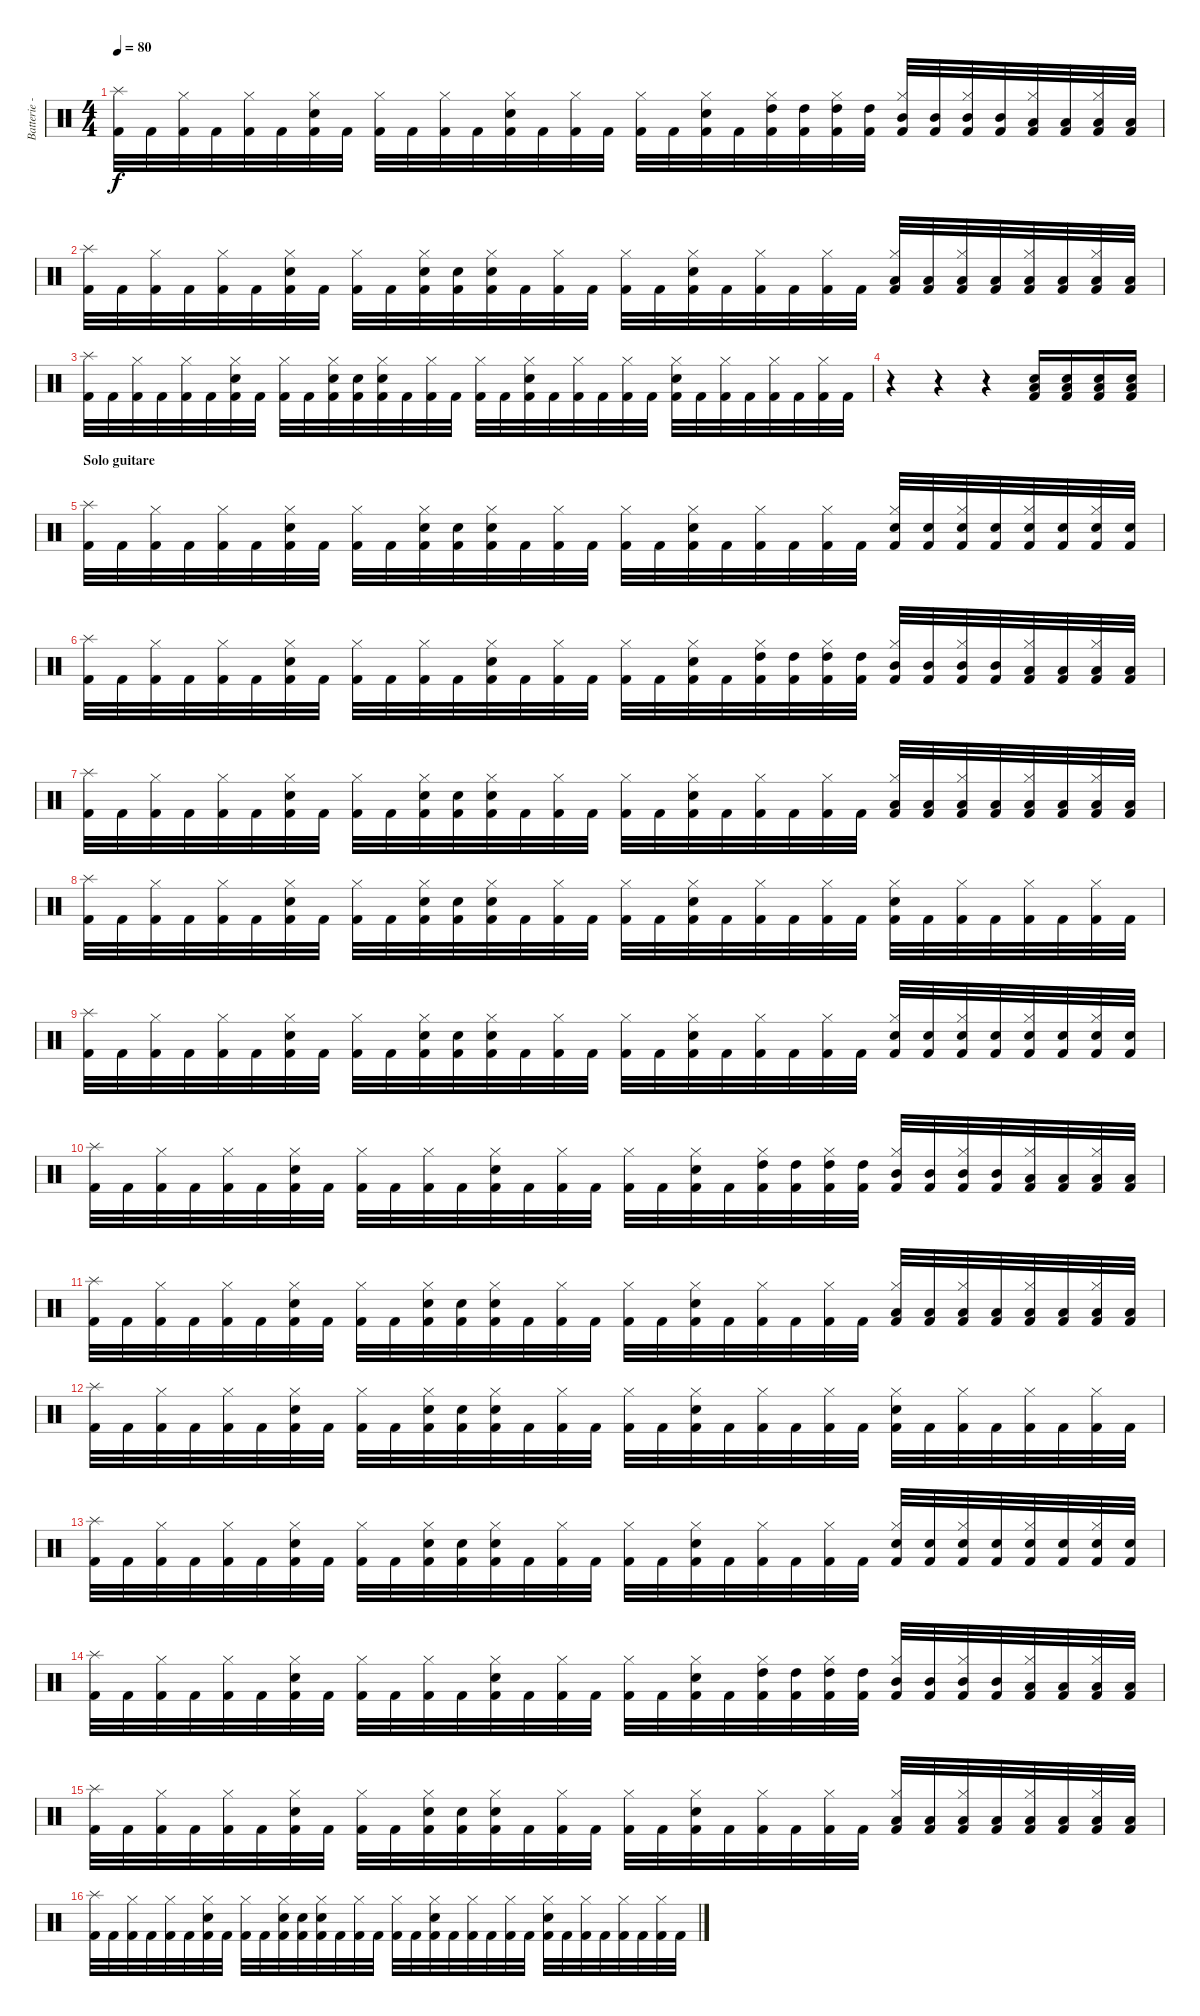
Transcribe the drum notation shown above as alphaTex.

\track ("Batterie - François" "Batterie -") {instrument percussion}
\staff {score}
\articulation defaults
\ts (4 4)
\tempo 80
\clef neutral
\ks c
("Splash (hit)" "Kick (hit) 2").32{dy f} "Kick (hit) 2".32 ("Hi-Hat (closed)" "Kick (hit) 2").32 "Kick (hit) 2".32 ("Hi-Hat (closed)" "Kick (hit) 2").32 "Kick (hit) 2".32 ("Hi-Hat (closed)" "Electric Snare (hit)" "Kick (hit) 2").32 "Kick (hit) 2".32 ("Hi-Hat (closed)" "Kick (hit) 2").32 "Kick (hit) 2".32 ("Hi-Hat (closed)" "Kick (hit) 2").32 "Kick (hit) 2".32 ("Hi-Hat (closed)" "Electric Snare (hit)" "Kick (hit) 2").32 "Kick (hit) 2".32 ("Hi-Hat (closed)" "Kick (hit) 2").32 "Kick (hit) 2".32 ("Hi-Hat (closed)" "Kick (hit) 2").32 "Kick (hit) 2".32 ("Hi-Hat (closed)" "Electric Snare (hit)" "Kick (hit) 2").32 "Kick (hit) 2".32 ("Hi-Hat (closed)" "High Tom (hit)" "Kick (hit) 2").32 ("High Tom (hit)" "Kick (hit) 2").32 ("Hi-Hat (closed)" "High Tom (hit)" "Kick (hit) 2").32 ("High Tom (hit)" "Kick (hit) 2").32 ("Hi-Hat (closed)" "Mid Tom (hit)" "Kick (hit) 2").32 ("Mid Tom (hit)" "Kick (hit) 2").32 ("Hi-Hat (closed)" "Mid Tom (hit)" "Kick (hit) 2").32 ("Mid Tom (hit)" "Kick (hit) 2").32 ("Hi-Hat (closed)" "Low Tom (hit)" "Kick (hit) 2").32 ("Low Tom (hit)" "Kick (hit) 2").32 ("Hi-Hat (closed)" "Low Tom (hit)" "Kick (hit) 2").32 ("Low Tom (hit)" "Kick (hit) 2").32 |
("Splash (hit)" "Kick (hit) 2").32 "Kick (hit) 2".32 ("Hi-Hat (closed)" "Kick (hit) 2").32 "Kick (hit) 2".32 ("Hi-Hat (closed)" "Kick (hit) 2").32 "Kick (hit) 2".32 ("Hi-Hat (closed)" "Electric Snare (hit)" "Kick (hit) 2").32 "Kick (hit) 2".32 ("Hi-Hat (closed)" "Kick (hit) 2").32 "Kick (hit) 2".32 ("Hi-Hat (closed)" "Electric Snare (hit)" "Kick (hit) 2").32 ("Electric Snare (hit)" "Kick (hit) 2").32 ("Hi-Hat (closed)" "Electric Snare (hit)" "Kick (hit) 2").32 "Kick (hit) 2".32 ("Hi-Hat (closed)" "Kick (hit) 2").32 "Kick (hit) 2".32 ("Hi-Hat (closed)" "Kick (hit) 2").32 "Kick (hit) 2".32 ("Hi-Hat (closed)" "Electric Snare (hit)" "Kick (hit) 2").32 "Kick (hit) 2".32 ("Hi-Hat (closed)" "Kick (hit) 2").32 "Kick (hit) 2".32 ("Hi-Hat (closed)" "Kick (hit) 2").32 "Kick (hit) 2".32 ("Hi-Hat (closed)" "Low Tom (hit)" "Kick (hit) 2").32 ("Low Tom (hit)" "Kick (hit) 2").32 ("Hi-Hat (closed)" "Low Tom (hit)" "Kick (hit) 2").32 ("Low Tom (hit)" "Kick (hit) 2").32 ("Hi-Hat (closed)" "Low Tom (hit)" "Kick (hit) 2").32 ("Low Tom (hit)" "Kick (hit) 2").32 ("Hi-Hat (closed)" "Low Tom (hit)" "Kick (hit) 2").32 ("Low Tom (hit)" "Kick (hit) 2").32 |
("Splash (hit)" "Kick (hit) 2").32 "Kick (hit) 2".32 ("Hi-Hat (closed)" "Kick (hit) 2").32 "Kick (hit) 2".32 ("Hi-Hat (closed)" "Kick (hit) 2").32 "Kick (hit) 2".32 ("Hi-Hat (closed)" "Electric Snare (hit)" "Kick (hit) 2").32 "Kick (hit) 2".32 ("Hi-Hat (closed)" "Kick (hit) 2").32 "Kick (hit) 2".32 ("Hi-Hat (closed)" "Electric Snare (hit)" "Kick (hit) 2").32 ("Electric Snare (hit)" "Kick (hit) 2").32 ("Hi-Hat (closed)" "Electric Snare (hit)" "Kick (hit) 2").32 "Kick (hit) 2".32 ("Hi-Hat (closed)" "Kick (hit) 2").32 "Kick (hit) 2".32 ("Hi-Hat (closed)" "Kick (hit) 2").32 "Kick (hit) 2".32 ("Hi-Hat (closed)" "Electric Snare (hit)" "Kick (hit) 2").32 "Kick (hit) 2".32 ("Hi-Hat (closed)" "Kick (hit) 2").32 "Kick (hit) 2".32 ("Hi-Hat (closed)" "Kick (hit) 2").32 "Kick (hit) 2".32 ("Hi-Hat (closed)" "Electric Snare (hit)" "Kick (hit) 2").32 "Kick (hit) 2".32 ("Hi-Hat (closed)" "Kick (hit) 2").32 "Kick (hit) 2".32 ("Hi-Hat (closed)" "Kick (hit) 2").32 "Kick (hit) 2".32 ("Hi-Hat (closed)" "Kick (hit) 2").32 "Kick (hit) 2".32 |
r.4 r.4 r.4 ("Electric Snare (hit)" "Low Tom (hit)" "Kick (hit) 2").16 ("Electric Snare (hit)" "Low Tom (hit)" "Kick (hit) 2").16 ("Electric Snare (hit)" "Low Tom (hit)" "Kick (hit) 2").16 ("Electric Snare (hit)" "Low Tom (hit)" "Kick (hit) 2").16 |
\section ("" "Solo guitare")
("Splash (hit)" "Kick (hit) 2").32 "Kick (hit) 2".32 ("Hi-Hat (closed)" "Kick (hit) 2").32 "Kick (hit) 2".32 ("Hi-Hat (closed)" "Kick (hit) 2").32 "Kick (hit) 2".32 ("Hi-Hat (closed)" "Electric Snare (hit)" "Kick (hit) 2").32 "Kick (hit) 2".32 ("Hi-Hat (closed)" "Kick (hit) 2").32 "Kick (hit) 2".32 ("Hi-Hat (closed)" "Electric Snare (hit)" "Kick (hit) 2").32 ("Electric Snare (hit)" "Kick (hit) 2").32 ("Hi-Hat (closed)" "Electric Snare (hit)" "Kick (hit) 2").32 "Kick (hit) 2".32 ("Hi-Hat (closed)" "Kick (hit) 2").32 "Kick (hit) 2".32 ("Hi-Hat (closed)" "Kick (hit) 2").32 "Kick (hit) 2".32 ("Hi-Hat (closed)" "Electric Snare (hit)" "Kick (hit) 2").32 "Kick (hit) 2".32 ("Hi-Hat (closed)" "Kick (hit) 2").32 "Kick (hit) 2".32 ("Hi-Hat (closed)" "Kick (hit) 2").32 "Kick (hit) 2".32 ("Hi-Hat (closed)" "Electric Snare (hit)" "Kick (hit) 2").32 ("Electric Snare (hit)" "Kick (hit) 2").32 ("Hi-Hat (closed)" "Electric Snare (hit)" "Kick (hit) 2").32 ("Electric Snare (hit)" "Kick (hit) 2").32 ("Hi-Hat (closed)" "Electric Snare (hit)" "Kick (hit) 2").32 ("Electric Snare (hit)" "Kick (hit) 2").32 ("Hi-Hat (closed)" "Electric Snare (hit)" "Kick (hit) 2").32 ("Electric Snare (hit)" "Kick (hit) 2").32 |
("Splash (hit)" "Kick (hit) 2").32 "Kick (hit) 2".32 ("Hi-Hat (closed)" "Kick (hit) 2").32 "Kick (hit) 2".32 ("Hi-Hat (closed)" "Kick (hit) 2").32 "Kick (hit) 2".32 ("Hi-Hat (closed)" "Electric Snare (hit)" "Kick (hit) 2").32 "Kick (hit) 2".32 ("Hi-Hat (closed)" "Kick (hit) 2").32 "Kick (hit) 2".32 ("Hi-Hat (closed)" "Kick (hit) 2").32 "Kick (hit) 2".32 ("Hi-Hat (closed)" "Electric Snare (hit)" "Kick (hit) 2").32 "Kick (hit) 2".32 ("Hi-Hat (closed)" "Kick (hit) 2").32 "Kick (hit) 2".32 ("Hi-Hat (closed)" "Kick (hit) 2").32 "Kick (hit) 2".32 ("Hi-Hat (closed)" "Electric Snare (hit)" "Kick (hit) 2").32 "Kick (hit) 2".32 ("Hi-Hat (closed)" "High Tom (hit)" "Kick (hit) 2").32 ("High Tom (hit)" "Kick (hit) 2").32 ("Hi-Hat (closed)" "High Tom (hit)" "Kick (hit) 2").32 ("High Tom (hit)" "Kick (hit) 2").32 ("Hi-Hat (closed)" "Mid Tom (hit)" "Kick (hit) 2").32 ("Mid Tom (hit)" "Kick (hit) 2").32 ("Hi-Hat (closed)" "Mid Tom (hit)" "Kick (hit) 2").32 ("Mid Tom (hit)" "Kick (hit) 2").32 ("Hi-Hat (closed)" "Low Tom (hit)" "Kick (hit) 2").32 ("Low Tom (hit)" "Kick (hit) 2").32 ("Hi-Hat (closed)" "Low Tom (hit)" "Kick (hit) 2").32 ("Low Tom (hit)" "Kick (hit) 2").32 |
("Splash (hit)" "Kick (hit) 2").32 "Kick (hit) 2".32 ("Hi-Hat (closed)" "Kick (hit) 2").32 "Kick (hit) 2".32 ("Hi-Hat (closed)" "Kick (hit) 2").32 "Kick (hit) 2".32 ("Hi-Hat (closed)" "Electric Snare (hit)" "Kick (hit) 2").32 "Kick (hit) 2".32 ("Hi-Hat (closed)" "Kick (hit) 2").32 "Kick (hit) 2".32 ("Hi-Hat (closed)" "Electric Snare (hit)" "Kick (hit) 2").32 ("Electric Snare (hit)" "Kick (hit) 2").32 ("Hi-Hat (closed)" "Electric Snare (hit)" "Kick (hit) 2").32 "Kick (hit) 2".32 ("Hi-Hat (closed)" "Kick (hit) 2").32 "Kick (hit) 2".32 ("Hi-Hat (closed)" "Kick (hit) 2").32 "Kick (hit) 2".32 ("Hi-Hat (closed)" "Electric Snare (hit)" "Kick (hit) 2").32 "Kick (hit) 2".32 ("Hi-Hat (closed)" "Kick (hit) 2").32 "Kick (hit) 2".32 ("Hi-Hat (closed)" "Kick (hit) 2").32 "Kick (hit) 2".32 ("Hi-Hat (closed)" "Low Tom (hit)" "Kick (hit) 2").32 ("Low Tom (hit)" "Kick (hit) 2").32 ("Hi-Hat (closed)" "Low Tom (hit)" "Kick (hit) 2").32 ("Low Tom (hit)" "Kick (hit) 2").32 ("Hi-Hat (closed)" "Low Tom (hit)" "Kick (hit) 2").32 ("Low Tom (hit)" "Kick (hit) 2").32 ("Hi-Hat (closed)" "Low Tom (hit)" "Kick (hit) 2").32 ("Low Tom (hit)" "Kick (hit) 2").32 |
("Splash (hit)" "Kick (hit) 2").32 "Kick (hit) 2".32 ("Hi-Hat (closed)" "Kick (hit) 2").32 "Kick (hit) 2".32 ("Hi-Hat (closed)" "Kick (hit) 2").32 "Kick (hit) 2".32 ("Hi-Hat (closed)" "Electric Snare (hit)" "Kick (hit) 2").32 "Kick (hit) 2".32 ("Hi-Hat (closed)" "Kick (hit) 2").32 "Kick (hit) 2".32 ("Hi-Hat (closed)" "Electric Snare (hit)" "Kick (hit) 2").32 ("Electric Snare (hit)" "Kick (hit) 2").32 ("Hi-Hat (closed)" "Electric Snare (hit)" "Kick (hit) 2").32 "Kick (hit) 2".32 ("Hi-Hat (closed)" "Kick (hit) 2").32 "Kick (hit) 2".32 ("Hi-Hat (closed)" "Kick (hit) 2").32 "Kick (hit) 2".32 ("Hi-Hat (closed)" "Electric Snare (hit)" "Kick (hit) 2").32 "Kick (hit) 2".32 ("Hi-Hat (closed)" "Kick (hit) 2").32 "Kick (hit) 2".32 ("Hi-Hat (closed)" "Kick (hit) 2").32 "Kick (hit) 2".32 ("Hi-Hat (closed)" "Electric Snare (hit)" "Kick (hit) 2").32 "Kick (hit) 2".32 ("Hi-Hat (closed)" "Kick (hit) 2").32 "Kick (hit) 2".32 ("Hi-Hat (closed)" "Kick (hit) 2").32 "Kick (hit) 2".32 ("Hi-Hat (closed)" "Kick (hit) 2").32 "Kick (hit) 2".32 |
("Splash (hit)" "Kick (hit) 2").32 "Kick (hit) 2".32 ("Hi-Hat (closed)" "Kick (hit) 2").32 "Kick (hit) 2".32 ("Hi-Hat (closed)" "Kick (hit) 2").32 "Kick (hit) 2".32 ("Hi-Hat (closed)" "Electric Snare (hit)" "Kick (hit) 2").32 "Kick (hit) 2".32 ("Hi-Hat (closed)" "Kick (hit) 2").32 "Kick (hit) 2".32 ("Hi-Hat (closed)" "Electric Snare (hit)" "Kick (hit) 2").32 ("Electric Snare (hit)" "Kick (hit) 2").32 ("Hi-Hat (closed)" "Electric Snare (hit)" "Kick (hit) 2").32 "Kick (hit) 2".32 ("Hi-Hat (closed)" "Kick (hit) 2").32 "Kick (hit) 2".32 ("Hi-Hat (closed)" "Kick (hit) 2").32 "Kick (hit) 2".32 ("Hi-Hat (closed)" "Electric Snare (hit)" "Kick (hit) 2").32 "Kick (hit) 2".32 ("Hi-Hat (closed)" "Kick (hit) 2").32 "Kick (hit) 2".32 ("Hi-Hat (closed)" "Kick (hit) 2").32 "Kick (hit) 2".32 ("Hi-Hat (closed)" "Electric Snare (hit)" "Kick (hit) 2").32 ("Electric Snare (hit)" "Kick (hit) 2").32 ("Hi-Hat (closed)" "Electric Snare (hit)" "Kick (hit) 2").32 ("Electric Snare (hit)" "Kick (hit) 2").32 ("Hi-Hat (closed)" "Electric Snare (hit)" "Kick (hit) 2").32 ("Electric Snare (hit)" "Kick (hit) 2").32 ("Hi-Hat (closed)" "Electric Snare (hit)" "Kick (hit) 2").32 ("Electric Snare (hit)" "Kick (hit) 2").32 |
("Splash (hit)" "Kick (hit) 2").32 "Kick (hit) 2".32 ("Hi-Hat (closed)" "Kick (hit) 2").32 "Kick (hit) 2".32 ("Hi-Hat (closed)" "Kick (hit) 2").32 "Kick (hit) 2".32 ("Hi-Hat (closed)" "Electric Snare (hit)" "Kick (hit) 2").32 "Kick (hit) 2".32 ("Hi-Hat (closed)" "Kick (hit) 2").32 "Kick (hit) 2".32 ("Hi-Hat (closed)" "Kick (hit) 2").32 "Kick (hit) 2".32 ("Hi-Hat (closed)" "Electric Snare (hit)" "Kick (hit) 2").32 "Kick (hit) 2".32 ("Hi-Hat (closed)" "Kick (hit) 2").32 "Kick (hit) 2".32 ("Hi-Hat (closed)" "Kick (hit) 2").32 "Kick (hit) 2".32 ("Hi-Hat (closed)" "Electric Snare (hit)" "Kick (hit) 2").32 "Kick (hit) 2".32 ("Hi-Hat (closed)" "High Tom (hit)" "Kick (hit) 2").32 ("High Tom (hit)" "Kick (hit) 2").32 ("Hi-Hat (closed)" "High Tom (hit)" "Kick (hit) 2").32 ("High Tom (hit)" "Kick (hit) 2").32 ("Hi-Hat (closed)" "Mid Tom (hit)" "Kick (hit) 2").32 ("Mid Tom (hit)" "Kick (hit) 2").32 ("Hi-Hat (closed)" "Mid Tom (hit)" "Kick (hit) 2").32 ("Mid Tom (hit)" "Kick (hit) 2").32 ("Hi-Hat (closed)" "Low Tom (hit)" "Kick (hit) 2").32 ("Low Tom (hit)" "Kick (hit) 2").32 ("Hi-Hat (closed)" "Low Tom (hit)" "Kick (hit) 2").32 ("Low Tom (hit)" "Kick (hit) 2").32 |
("Splash (hit)" "Kick (hit) 2").32 "Kick (hit) 2".32 ("Hi-Hat (closed)" "Kick (hit) 2").32 "Kick (hit) 2".32 ("Hi-Hat (closed)" "Kick (hit) 2").32 "Kick (hit) 2".32 ("Hi-Hat (closed)" "Electric Snare (hit)" "Kick (hit) 2").32 "Kick (hit) 2".32 ("Hi-Hat (closed)" "Kick (hit) 2").32 "Kick (hit) 2".32 ("Hi-Hat (closed)" "Electric Snare (hit)" "Kick (hit) 2").32 ("Electric Snare (hit)" "Kick (hit) 2").32 ("Hi-Hat (closed)" "Electric Snare (hit)" "Kick (hit) 2").32 "Kick (hit) 2".32 ("Hi-Hat (closed)" "Kick (hit) 2").32 "Kick (hit) 2".32 ("Hi-Hat (closed)" "Kick (hit) 2").32 "Kick (hit) 2".32 ("Hi-Hat (closed)" "Electric Snare (hit)" "Kick (hit) 2").32 "Kick (hit) 2".32 ("Hi-Hat (closed)" "Kick (hit) 2").32 "Kick (hit) 2".32 ("Hi-Hat (closed)" "Kick (hit) 2").32 "Kick (hit) 2".32 ("Hi-Hat (closed)" "Low Tom (hit)" "Kick (hit) 2").32 ("Low Tom (hit)" "Kick (hit) 2").32 ("Hi-Hat (closed)" "Low Tom (hit)" "Kick (hit) 2").32 ("Low Tom (hit)" "Kick (hit) 2").32 ("Hi-Hat (closed)" "Low Tom (hit)" "Kick (hit) 2").32 ("Low Tom (hit)" "Kick (hit) 2").32 ("Hi-Hat (closed)" "Low Tom (hit)" "Kick (hit) 2").32 ("Low Tom (hit)" "Kick (hit) 2").32 |
("Splash (hit)" "Kick (hit) 2").32 "Kick (hit) 2".32 ("Hi-Hat (closed)" "Kick (hit) 2").32 "Kick (hit) 2".32 ("Hi-Hat (closed)" "Kick (hit) 2").32 "Kick (hit) 2".32 ("Hi-Hat (closed)" "Electric Snare (hit)" "Kick (hit) 2").32 "Kick (hit) 2".32 ("Hi-Hat (closed)" "Kick (hit) 2").32 "Kick (hit) 2".32 ("Hi-Hat (closed)" "Electric Snare (hit)" "Kick (hit) 2").32 ("Electric Snare (hit)" "Kick (hit) 2").32 ("Hi-Hat (closed)" "Electric Snare (hit)" "Kick (hit) 2").32 "Kick (hit) 2".32 ("Hi-Hat (closed)" "Kick (hit) 2").32 "Kick (hit) 2".32 ("Hi-Hat (closed)" "Kick (hit) 2").32 "Kick (hit) 2".32 ("Hi-Hat (closed)" "Electric Snare (hit)" "Kick (hit) 2").32 "Kick (hit) 2".32 ("Hi-Hat (closed)" "Kick (hit) 2").32 "Kick (hit) 2".32 ("Hi-Hat (closed)" "Kick (hit) 2").32 "Kick (hit) 2".32 ("Hi-Hat (closed)" "Electric Snare (hit)" "Kick (hit) 2").32 "Kick (hit) 2".32 ("Hi-Hat (closed)" "Kick (hit) 2").32 "Kick (hit) 2".32 ("Hi-Hat (closed)" "Kick (hit) 2").32 "Kick (hit) 2".32 ("Hi-Hat (closed)" "Kick (hit) 2").32 "Kick (hit) 2".32 |
("Splash (hit)" "Kick (hit) 2").32 "Kick (hit) 2".32 ("Hi-Hat (closed)" "Kick (hit) 2").32 "Kick (hit) 2".32 ("Hi-Hat (closed)" "Kick (hit) 2").32 "Kick (hit) 2".32 ("Hi-Hat (closed)" "Electric Snare (hit)" "Kick (hit) 2").32 "Kick (hit) 2".32 ("Hi-Hat (closed)" "Kick (hit) 2").32 "Kick (hit) 2".32 ("Hi-Hat (closed)" "Electric Snare (hit)" "Kick (hit) 2").32 ("Electric Snare (hit)" "Kick (hit) 2").32 ("Hi-Hat (closed)" "Electric Snare (hit)" "Kick (hit) 2").32 "Kick (hit) 2".32 ("Hi-Hat (closed)" "Kick (hit) 2").32 "Kick (hit) 2".32 ("Hi-Hat (closed)" "Kick (hit) 2").32 "Kick (hit) 2".32 ("Hi-Hat (closed)" "Electric Snare (hit)" "Kick (hit) 2").32 "Kick (hit) 2".32 ("Hi-Hat (closed)" "Kick (hit) 2").32 "Kick (hit) 2".32 ("Hi-Hat (closed)" "Kick (hit) 2").32 "Kick (hit) 2".32 ("Hi-Hat (closed)" "Electric Snare (hit)" "Kick (hit) 2").32 ("Electric Snare (hit)" "Kick (hit) 2").32 ("Hi-Hat (closed)" "Electric Snare (hit)" "Kick (hit) 2").32 ("Electric Snare (hit)" "Kick (hit) 2").32 ("Hi-Hat (closed)" "Electric Snare (hit)" "Kick (hit) 2").32 ("Electric Snare (hit)" "Kick (hit) 2").32 ("Hi-Hat (closed)" "Electric Snare (hit)" "Kick (hit) 2").32 ("Electric Snare (hit)" "Kick (hit) 2").32 |
("Splash (hit)" "Kick (hit) 2").32 "Kick (hit) 2".32 ("Hi-Hat (closed)" "Kick (hit) 2").32 "Kick (hit) 2".32 ("Hi-Hat (closed)" "Kick (hit) 2").32 "Kick (hit) 2".32 ("Hi-Hat (closed)" "Electric Snare (hit)" "Kick (hit) 2").32 "Kick (hit) 2".32 ("Hi-Hat (closed)" "Kick (hit) 2").32 "Kick (hit) 2".32 ("Hi-Hat (closed)" "Kick (hit) 2").32 "Kick (hit) 2".32 ("Hi-Hat (closed)" "Electric Snare (hit)" "Kick (hit) 2").32 "Kick (hit) 2".32 ("Hi-Hat (closed)" "Kick (hit) 2").32 "Kick (hit) 2".32 ("Hi-Hat (closed)" "Kick (hit) 2").32 "Kick (hit) 2".32 ("Hi-Hat (closed)" "Electric Snare (hit)" "Kick (hit) 2").32 "Kick (hit) 2".32 ("Hi-Hat (closed)" "High Tom (hit)" "Kick (hit) 2").32 ("High Tom (hit)" "Kick (hit) 2").32 ("Hi-Hat (closed)" "High Tom (hit)" "Kick (hit) 2").32 ("High Tom (hit)" "Kick (hit) 2").32 ("Hi-Hat (closed)" "Mid Tom (hit)" "Kick (hit) 2").32 ("Mid Tom (hit)" "Kick (hit) 2").32 ("Hi-Hat (closed)" "Mid Tom (hit)" "Kick (hit) 2").32 ("Mid Tom (hit)" "Kick (hit) 2").32 ("Hi-Hat (closed)" "Low Tom (hit)" "Kick (hit) 2").32 ("Low Tom (hit)" "Kick (hit) 2").32 ("Hi-Hat (closed)" "Low Tom (hit)" "Kick (hit) 2").32 ("Low Tom (hit)" "Kick (hit) 2").32 |
("Splash (hit)" "Kick (hit) 2").32 "Kick (hit) 2".32 ("Hi-Hat (closed)" "Kick (hit) 2").32 "Kick (hit) 2".32 ("Hi-Hat (closed)" "Kick (hit) 2").32 "Kick (hit) 2".32 ("Hi-Hat (closed)" "Electric Snare (hit)" "Kick (hit) 2").32 "Kick (hit) 2".32 ("Hi-Hat (closed)" "Kick (hit) 2").32 "Kick (hit) 2".32 ("Hi-Hat (closed)" "Electric Snare (hit)" "Kick (hit) 2").32 ("Electric Snare (hit)" "Kick (hit) 2").32 ("Hi-Hat (closed)" "Electric Snare (hit)" "Kick (hit) 2").32 "Kick (hit) 2".32 ("Hi-Hat (closed)" "Kick (hit) 2").32 "Kick (hit) 2".32 ("Hi-Hat (closed)" "Kick (hit) 2").32 "Kick (hit) 2".32 ("Hi-Hat (closed)" "Electric Snare (hit)" "Kick (hit) 2").32 "Kick (hit) 2".32 ("Hi-Hat (closed)" "Kick (hit) 2").32 "Kick (hit) 2".32 ("Hi-Hat (closed)" "Kick (hit) 2").32 "Kick (hit) 2".32 ("Hi-Hat (closed)" "Low Tom (hit)" "Kick (hit) 2").32 ("Low Tom (hit)" "Kick (hit) 2").32 ("Hi-Hat (closed)" "Low Tom (hit)" "Kick (hit) 2").32 ("Low Tom (hit)" "Kick (hit) 2").32 ("Hi-Hat (closed)" "Low Tom (hit)" "Kick (hit) 2").32 ("Low Tom (hit)" "Kick (hit) 2").32 ("Hi-Hat (closed)" "Low Tom (hit)" "Kick (hit) 2").32 ("Low Tom (hit)" "Kick (hit) 2").32 |
("Splash (hit)" "Kick (hit) 2").32 "Kick (hit) 2".32 ("Hi-Hat (closed)" "Kick (hit) 2").32 "Kick (hit) 2".32 ("Hi-Hat (closed)" "Kick (hit) 2").32 "Kick (hit) 2".32 ("Hi-Hat (closed)" "Electric Snare (hit)" "Kick (hit) 2").32 "Kick (hit) 2".32 ("Hi-Hat (closed)" "Kick (hit) 2").32 "Kick (hit) 2".32 ("Hi-Hat (closed)" "Electric Snare (hit)" "Kick (hit) 2").32 ("Electric Snare (hit)" "Kick (hit) 2").32 ("Hi-Hat (closed)" "Electric Snare (hit)" "Kick (hit) 2").32 "Kick (hit) 2".32 ("Hi-Hat (closed)" "Kick (hit) 2").32 "Kick (hit) 2".32 ("Hi-Hat (closed)" "Kick (hit) 2").32 "Kick (hit) 2".32 ("Hi-Hat (closed)" "Electric Snare (hit)" "Kick (hit) 2").32 "Kick (hit) 2".32 ("Hi-Hat (closed)" "Kick (hit) 2").32 "Kick (hit) 2".32 ("Hi-Hat (closed)" "Kick (hit) 2").32 "Kick (hit) 2".32 ("Hi-Hat (closed)" "Electric Snare (hit)" "Kick (hit) 2").32 "Kick (hit) 2".32 ("Hi-Hat (closed)" "Kick (hit) 2").32 "Kick (hit) 2".32 ("Hi-Hat (closed)" "Kick (hit) 2").32 "Kick (hit) 2".32 ("Hi-Hat (closed)" "Kick (hit) 2").32 "Kick (hit) 2".32
